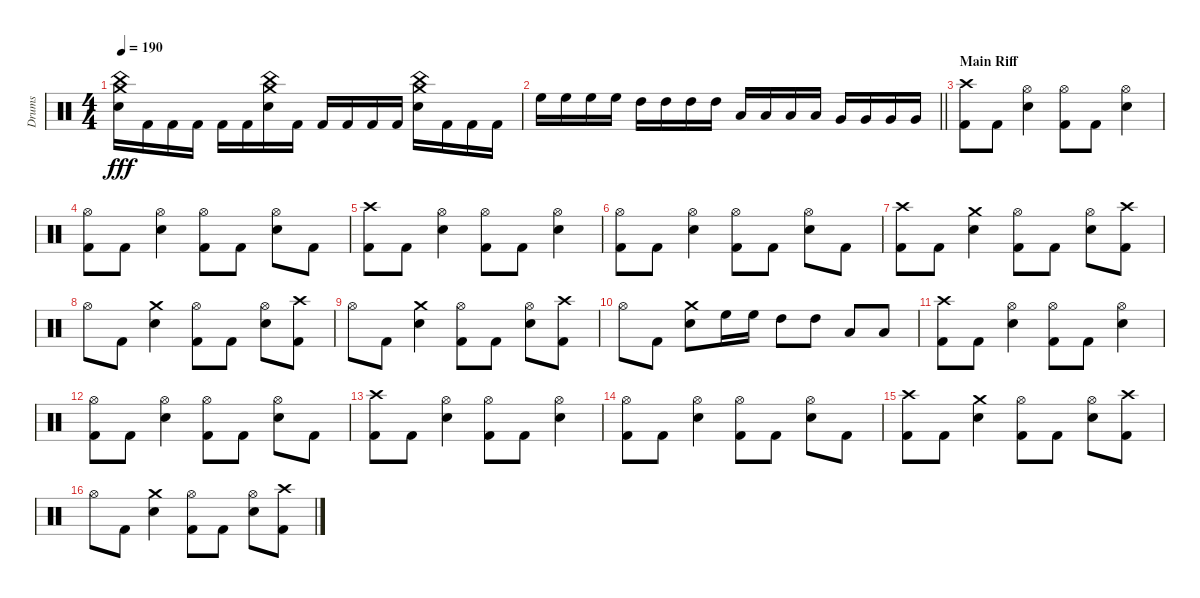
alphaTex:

\track ("Drums" "Drums") {instrument percussion}
\staff {score}
\articulation defaults
\ts (4 4)
\tempo 190
\clef neutral
\ks c
("Electric Snare (hit)" "Crash medium (hit)" "China (hit)").16{dy fff} "Kick (hit) 2".16 "Kick (hit) 2".16 "Kick (hit) 2".16 "Kick (hit) 2".16 "Kick (hit) 2".16 ("Electric Snare (hit)" "Crash medium (hit)" "China (hit)").16 "Kick (hit) 2".16 "Kick (hit) 2".16 "Kick (hit) 2".16 "Kick (hit) 2".16 "Kick (hit) 2".16 ("Electric Snare (hit)" "Crash medium (hit)" "China (hit)").16 "Kick (hit) 2".16 "Kick (hit) 2".16 "Kick (hit) 2".16 |
\barLineRight lightlight "High Floor Tom (hit)".16 "High Floor Tom (hit)".16 "High Floor Tom (hit)".16 "High Floor Tom (hit)".16 "High Tom (hit)".16 "High Tom (hit)".16 "High Tom (hit)".16 "High Tom (hit)".16 "Low Tom (hit)".16 "Low Tom (hit)".16 "Low Tom (hit)".16 "Low Tom (hit)".16 "Very Low Tom (hit)".16 "Very Low Tom (hit)".16 "Very Low Tom (hit)".16 "Very Low Tom (hit)".16
|
\section ("" "Main Riff")
("Kick (hit) 2" "Crash high (hit)").8 "Kick (hit) 2".8 ("Electric Snare (hit)" "Hi-Hat (open)").4 ("Kick (hit) 2" "Hi-Hat (open)").8 "Kick (hit) 2".8 ("Electric Snare (hit)" "Hi-Hat (open)").4 |
("Kick (hit) 2" "Hi-Hat (open)").8 "Kick (hit) 2".8 ("Electric Snare (hit)" "Hi-Hat (open)").4 ("Kick (hit) 2" "Hi-Hat (open)").8 "Kick (hit) 2".8 ("Electric Snare (hit)" "Hi-Hat (open)").8 "Kick (hit) 2".8 |
("Kick (hit) 2" "Crash high (hit)").8 "Kick (hit) 2".8 ("Electric Snare (hit)" "Hi-Hat (open)").4 ("Kick (hit) 2" "Hi-Hat (open)").8 "Kick (hit) 2".8 ("Electric Snare (hit)" "Hi-Hat (open)").4 |
("Kick (hit) 2" "Hi-Hat (open)").8 "Kick (hit) 2".8 ("Electric Snare (hit)" "Hi-Hat (open)").4 ("Kick (hit) 2" "Hi-Hat (open)").8 "Kick (hit) 2".8 ("Electric Snare (hit)" "Hi-Hat (open)").8 "Kick (hit) 2".8 |
("Kick (hit) 2" "Crash high (hit)").8 "Kick (hit) 2".8 ("Electric Snare (hit)" "Crash medium (hit)").4 ("Kick (hit) 2" "Hi-Hat (open)").8 "Kick (hit) 2".8 ("Electric Snare (hit)" "Hi-Hat (open)").8 ("Kick (hit) 2" "Crash high (hit)").8 |
"Hi-Hat (open)".8 "Kick (hit) 2".8 ("Electric Snare (hit)" "Crash medium (hit)").4 ("Kick (hit) 2" "Hi-Hat (open)").8 "Kick (hit) 2".8 ("Electric Snare (hit)" "Hi-Hat (open)").8 ("Kick (hit) 2" "Crash high (hit)").8 |
"Hi-Hat (open)".8 "Kick (hit) 2".8 ("Electric Snare (hit)" "Crash medium (hit)").4 ("Kick (hit) 2" "Hi-Hat (open)").8 "Kick (hit) 2".8 ("Electric Snare (hit)" "Hi-Hat (open)").8 ("Kick (hit) 2" "Crash high (hit)").8 |
"Hi-Hat (open)".8 "Kick (hit) 2".8 ("Electric Snare (hit)" "Crash medium (hit)").8 "High Floor Tom (hit)".16 "High Floor Tom (hit)".16 "High Tom (hit)".8 "High Tom (hit)".8 "Low Tom (hit)".8 "Low Tom (hit)".8 |
("Kick (hit) 2" "Crash high (hit)").8 "Kick (hit) 2".8 ("Electric Snare (hit)" "Hi-Hat (open)").4 ("Kick (hit) 2" "Hi-Hat (open)").8 "Kick (hit) 2".8 ("Electric Snare (hit)" "Hi-Hat (open)").4 |
("Kick (hit) 2" "Hi-Hat (open)").8 "Kick (hit) 2".8 ("Electric Snare (hit)" "Hi-Hat (open)").4 ("Kick (hit) 2" "Hi-Hat (open)").8 "Kick (hit) 2".8 ("Electric Snare (hit)" "Hi-Hat (open)").8 "Kick (hit) 2".8 |
("Kick (hit) 2" "Crash high (hit)").8 "Kick (hit) 2".8 ("Electric Snare (hit)" "Hi-Hat (open)").4 ("Kick (hit) 2" "Hi-Hat (open)").8 "Kick (hit) 2".8 ("Electric Snare (hit)" "Hi-Hat (open)").4 |
("Kick (hit) 2" "Hi-Hat (open)").8 "Kick (hit) 2".8 ("Electric Snare (hit)" "Hi-Hat (open)").4 ("Kick (hit) 2" "Hi-Hat (open)").8 "Kick (hit) 2".8 ("Electric Snare (hit)" "Hi-Hat (open)").8 "Kick (hit) 2".8 |
("Kick (hit) 2" "Crash high (hit)").8 "Kick (hit) 2".8 ("Electric Snare (hit)" "Crash medium (hit)").4 ("Kick (hit) 2" "Hi-Hat (open)").8 "Kick (hit) 2".8 ("Electric Snare (hit)" "Hi-Hat (open)").8 ("Kick (hit) 2" "Crash high (hit)").8 |
"Hi-Hat (open)".8 "Kick (hit) 2".8 ("Electric Snare (hit)" "Crash medium (hit)").4 ("Kick (hit) 2" "Hi-Hat (open)").8 "Kick (hit) 2".8 ("Electric Snare (hit)" "Hi-Hat (open)").8 ("Kick (hit) 2" "Crash high (hit)").8
